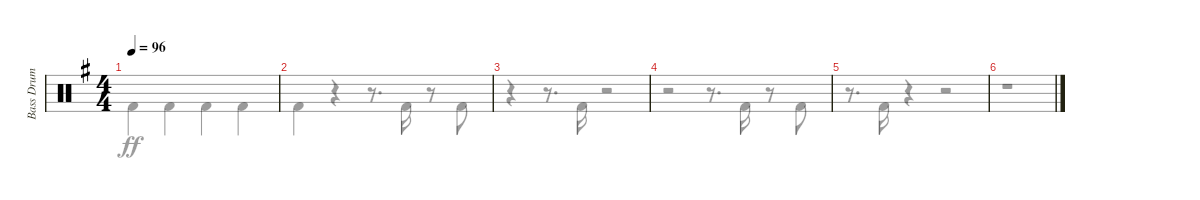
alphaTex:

\track ("Bass Drum" "Bass Drum") {instrument percussion}
\staff {score}
\articulation defaults
\voice
\ts (4 4)
\tempo 96
\clef neutral
\ks g
|
|
|
|
|
\voice
\clef neutral
\ks g "Kick (hit) 2".4{dy ff} "Kick (hit) 2".4 "Kick (hit) 2".4 "Kick (hit) 2".4
|
"Kick (hit) 2".4 r.4 r.8{d} "Kick (hit) 2".16 r.8 "Kick (hit) 2".8 |
r.4 r.8{d} "Kick (hit) 2".16 r.2 |
r.2 r.8{d} "Kick (hit) 2".16 r.8 "Kick (hit) 2".8 |
r.8{d} "Kick (hit) 2".16 r.4 r.2 |
r.1
